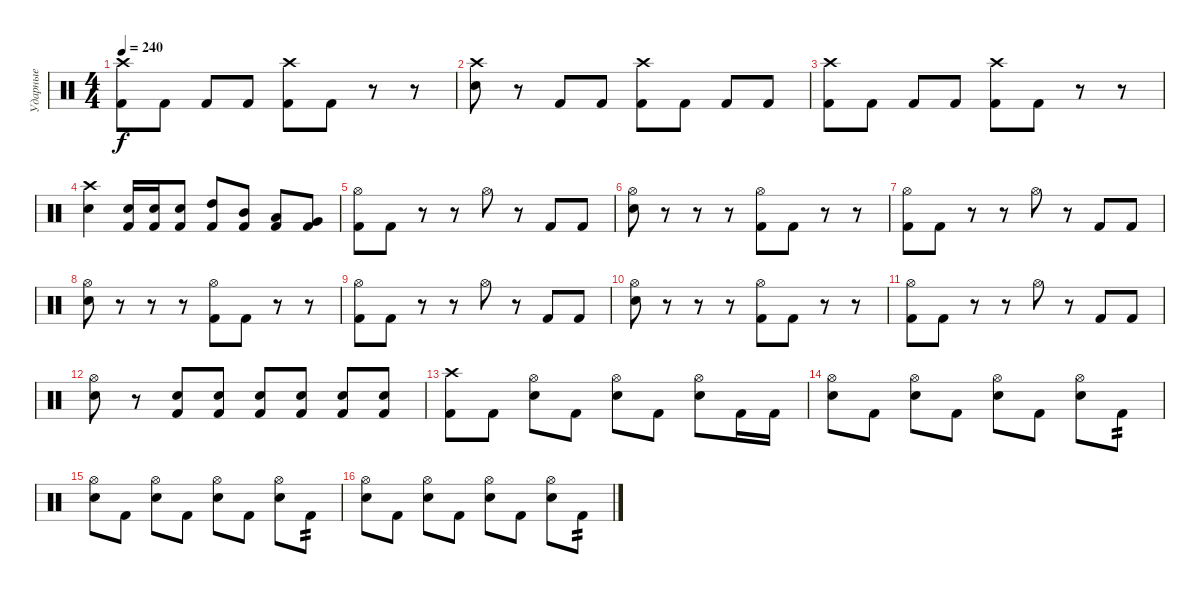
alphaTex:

\track ("Ударные" "Ударные") {instrument percussion}
\staff {score}
\articulation defaults
\ts (4 4)
\tempo 240
\clef neutral
\ks c
("Crash high (hit)" "Kick (hit) 2").8{dy f} "Kick (hit) 2".8 "Kick (hit) 2".8 "Kick (hit) 2".8 ("Crash high (hit)" "Kick (hit) 2").8 "Kick (hit) 2".8 r.8 r.8 |
("Crash high (hit)" "Electric Snare (hit)").8 r.8 "Kick (hit) 2".8 "Kick (hit) 2".8 ("Crash high (hit)" "Kick (hit) 2").8 "Kick (hit) 2".8 "Kick (hit) 2".8 "Kick (hit) 2".8 |
("Crash high (hit)" "Kick (hit) 2").8 "Kick (hit) 2".8 "Kick (hit) 2".8 "Kick (hit) 2".8 ("Crash high (hit)" "Kick (hit) 2").8 "Kick (hit) 2".8 r.8 r.8 |
("Crash high (hit)" "Electric Snare (hit)").4 ("Electric Snare (hit)" "Kick (hit) 2").16 ("Electric Snare (hit)" "Kick (hit) 2").16 ("Electric Snare (hit)" "Kick (hit) 2").8 ("High Tom (hit)" "Kick (hit) 2").8 ("Mid Tom (hit)" "Kick (hit) 2").8 ("Low Tom (hit)" "Kick (hit) 2").8 ("Very Low Tom (hit)" "Kick (hit) 2").8 |
("Hi-Hat (open)" "Kick (hit) 2").8 "Kick (hit) 2".8 r.8 r.8 "Hi-Hat (open)".8 r.8 "Kick (hit) 2".8 "Kick (hit) 2".8 |
("Hi-Hat (open)" "Electric Snare (hit)").8 r.8 r.8 r.8 ("Hi-Hat (open)" "Kick (hit) 2").8 "Kick (hit) 2".8 r.8 r.8 |
("Hi-Hat (open)" "Kick (hit) 2").8 "Kick (hit) 2".8 r.8 r.8 "Hi-Hat (open)".8 r.8 "Kick (hit) 2".8 "Kick (hit) 2".8 |
("Hi-Hat (open)" "Electric Snare (hit)").8 r.8 r.8 r.8 ("Hi-Hat (open)" "Kick (hit) 2").8 "Kick (hit) 2".8 r.8 r.8 |
("Hi-Hat (open)" "Kick (hit) 2").8 "Kick (hit) 2".8 r.8 r.8 "Hi-Hat (open)".8 r.8 "Kick (hit) 2".8 "Kick (hit) 2".8 |
("Hi-Hat (open)" "Electric Snare (hit)").8 r.8 r.8 r.8 ("Hi-Hat (open)" "Kick (hit) 2").8 "Kick (hit) 2".8 r.8 r.8 |
("Hi-Hat (open)" "Kick (hit) 2").8 "Kick (hit) 2".8 r.8 r.8 "Hi-Hat (open)".8 r.8 "Kick (hit) 2".8 "Kick (hit) 2".8 |
("Hi-Hat (open)" "Electric Snare (hit)").8 r.8 ("Electric Snare (hit)" "Kick (hit) 2").8 ("Electric Snare (hit)" "Kick (hit) 2").8 ("Electric Snare (hit)" "Kick (hit) 2").8 ("Electric Snare (hit)" "Kick (hit) 2").8 ("Electric Snare (hit)" "Kick (hit) 2").8 ("Electric Snare (hit)" "Kick (hit) 2").8 |
("Crash high (hit)" "Kick (hit) 2").8 "Kick (hit) 2".8 ("Hi-Hat (open)" "Electric Snare (hit)").8 "Kick (hit) 2".8 ("Hi-Hat (open)" "Electric Snare (hit)").8 "Kick (hit) 2".8 ("Hi-Hat (open)" "Electric Snare (hit)").8 "Kick (hit) 2".16 "Kick (hit) 2".16 |
("Hi-Hat (open)" "Electric Snare (hit)").8 "Kick (hit) 2".8 ("Hi-Hat (open)" "Electric Snare (hit)").8 "Kick (hit) 2".8 ("Hi-Hat (open)" "Electric Snare (hit)").8 "Kick (hit) 2".8 ("Hi-Hat (open)" "Electric Snare (hit)").8 "Kick (hit) 2".8{tp 2} |
("Hi-Hat (open)" "Electric Snare (hit)").8 "Kick (hit) 2".8 ("Hi-Hat (open)" "Electric Snare (hit)").8 "Kick (hit) 2".8 ("Hi-Hat (open)" "Electric Snare (hit)").8 "Kick (hit) 2".8 ("Hi-Hat (open)" "Electric Snare (hit)").8 "Kick (hit) 2".8{tp 2} |
("Hi-Hat (open)" "Electric Snare (hit)").8 "Kick (hit) 2".8 ("Hi-Hat (open)" "Electric Snare (hit)").8 "Kick (hit) 2".8 ("Hi-Hat (open)" "Electric Snare (hit)").8 "Kick (hit) 2".8 ("Hi-Hat (open)" "Electric Snare (hit)").8 "Kick (hit) 2".8{tp 2}
